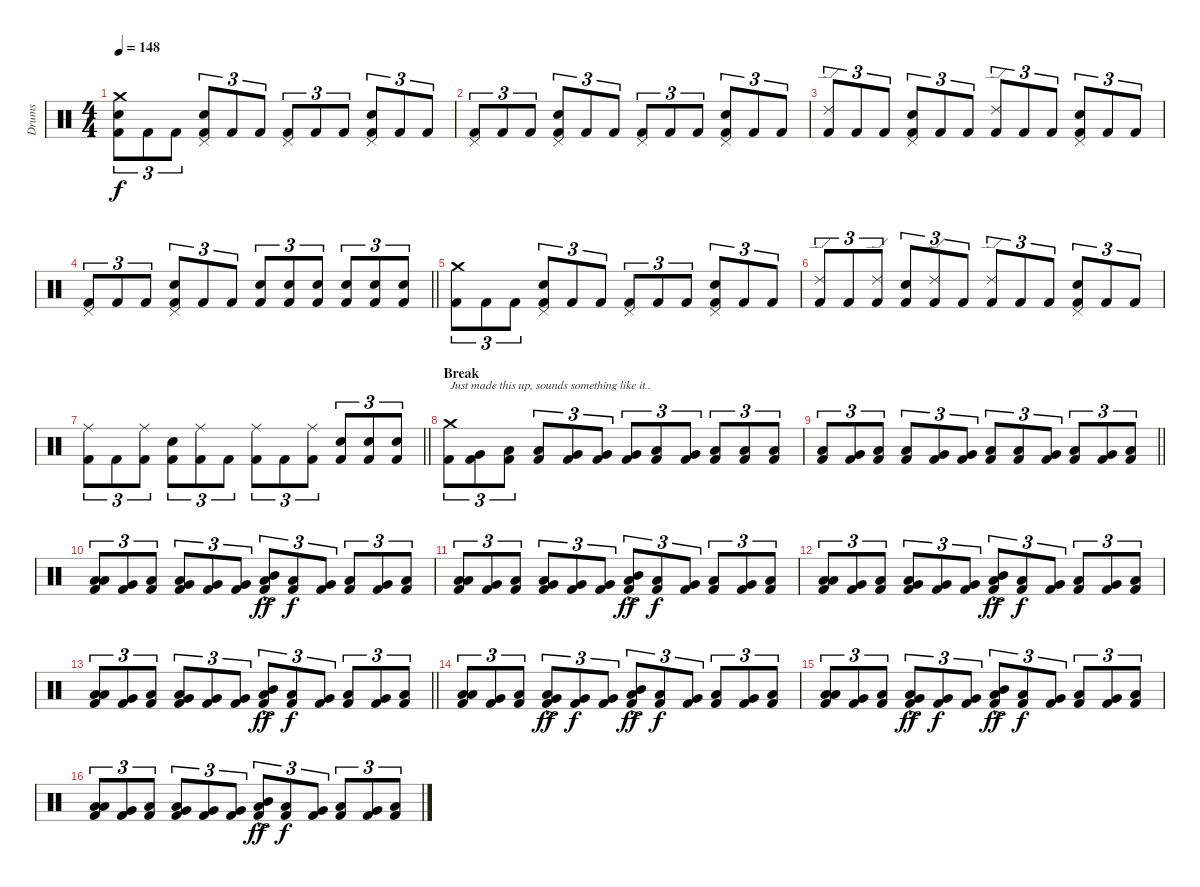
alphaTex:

\track ("Drums" "Drums") {instrument percussion}
\staff {score}
\articulation defaults
\ts (4 4)
\section ("" "")
\tempo 148
\clef neutral
\ks c
("Kick (hit) 2" "Snare (hit) 2" "Crash medium (hit)").8{tu (3 2) dy f} "Kick (hit) 2".8{tu (3 2)} "Kick (hit) 2".8{tu (3 2)} ("Kick (hit) 2" "Snare (hit) 2" "Pedal Hi-Hat (hit)").8{tu (3 2)} "Kick (hit) 2".8{tu (3 2)} "Kick (hit) 2".8{tu (3 2)} ("Kick (hit) 2" "Pedal Hi-Hat (hit)").8{tu (3 2)} "Kick (hit) 2".8{tu (3 2)} "Kick (hit) 2".8{tu (3 2)} ("Kick (hit) 2" "Snare (hit) 2" "Pedal Hi-Hat (hit)").8{tu (3 2)} "Kick (hit) 2".8{tu (3 2)} "Kick (hit) 2".8{tu (3 2)} |
("Kick (hit) 2" "Pedal Hi-Hat (hit)").8{tu (3 2)} "Kick (hit) 2".8{tu (3 2)} "Kick (hit) 2".8{tu (3 2)} ("Kick (hit) 2" "Snare (hit) 2" "Pedal Hi-Hat (hit)").8{tu (3 2)} "Kick (hit) 2".8{tu (3 2)} "Kick (hit) 2".8{tu (3 2)} ("Kick (hit) 2" "Pedal Hi-Hat (hit)").8{tu (3 2)} "Kick (hit) 2".8{tu (3 2)} "Kick (hit) 2".8{tu (3 2)} ("Kick (hit) 2" "Snare (hit) 2" "Pedal Hi-Hat (hit)").8{tu (3 2)} "Kick (hit) 2".8{tu (3 2)} "Kick (hit) 2".8{tu (3 2)} |
("Kick (hit) 2" "Ride (edge) 2").8{tu (3 2)} "Kick (hit) 2".8{tu (3 2)} "Kick (hit) 2".8{tu (3 2)} ("Kick (hit) 2" "Snare (hit) 2" "Pedal Hi-Hat (hit)").8{tu (3 2)} "Kick (hit) 2".8{tu (3 2)} "Kick (hit) 2".8{tu (3 2)} ("Kick (hit) 2" "Ride (edge) 2").8{tu (3 2)} "Kick (hit) 2".8{tu (3 2)} "Kick (hit) 2".8{tu (3 2)} ("Kick (hit) 2" "Snare (hit) 2" "Pedal Hi-Hat (hit)").8{tu (3 2)} "Kick (hit) 2".8{tu (3 2)} "Kick (hit) 2".8{tu (3 2)} |
\barLineRight lightlight
("Kick (hit) 2" "Pedal Hi-Hat (hit)").8{tu (3 2)} "Kick (hit) 2".8{tu (3 2)} "Kick (hit) 2".8{tu (3 2)} ("Kick (hit) 2" "Snare (hit) 2" "Pedal Hi-Hat (hit)").8{tu (3 2)} "Kick (hit) 2".8{tu (3 2)} "Kick (hit) 2".8{tu (3 2)} ("Kick (hit) 2" "Snare (hit) 2").8{tu (3 2)} ("Kick (hit) 2" "Snare (hit) 2").8{tu (3 2)} ("Kick (hit) 2" "Snare (hit) 2").8{tu (3 2)} ("Kick (hit) 2" "Snare (hit) 2").8{tu (3 2)} ("Kick (hit) 2" "Snare (hit) 2").8{tu (3 2)} ("Kick (hit) 2" "Snare (hit) 2").8{tu (3 2)} |
\section ("" "")
("Kick (hit) 2" "Crash medium (hit)").8{tu (3 2)} "Kick (hit) 2".8{tu (3 2)} "Kick (hit) 2".8{tu (3 2)} ("Kick (hit) 2" "Snare (hit) 2" "Pedal Hi-Hat (hit)").8{tu (3 2)} "Kick (hit) 2".8{tu (3 2)} "Kick (hit) 2".8{tu (3 2)} ("Kick (hit) 2" "Pedal Hi-Hat (hit)").8{tu (3 2)} "Kick (hit) 2".8{tu (3 2)} "Kick (hit) 2".8{tu (3 2)} ("Kick (hit) 2" "Snare (hit) 2" "Pedal Hi-Hat (hit)").8{tu (3 2)} "Kick (hit) 2".8{tu (3 2)} "Kick (hit) 2".8{tu (3 2)} |
("Kick (hit) 2" "Ride (edge) 2").8{tu (3 2)} "Kick (hit) 2".8{tu (3 2)} ("Kick (hit) 2" "Ride (edge) 2").8{tu (3 2)} ("Kick (hit) 2" "Snare (hit) 2").8{tu (3 2)} ("Kick (hit) 2" "Ride (edge) 2").8{tu (3 2)} "Kick (hit) 2".8{tu (3 2)} ("Kick (hit) 2" "Ride (edge) 2").8{tu (3 2)} "Kick (hit) 2".8{tu (3 2)} "Kick (hit) 2".8{tu (3 2)} ("Kick (hit) 2" "Snare (hit) 2" "Pedal Hi-Hat (hit)").8{tu (3 2)} "Kick (hit) 2".8{tu (3 2)} "Kick (hit) 2".8{tu (3 2)} |
\barLineRight lightlight
("Kick (hit) 2" "Ride (middle)").8{tu (3 2)} "Kick (hit) 2".8{tu (3 2)} ("Kick (hit) 2" "Ride (middle)").8{tu (3 2)} ("Kick (hit) 2" "Snare (hit) 2").8{tu (3 2)} ("Kick (hit) 2" "Ride (middle)").8{tu (3 2)} "Kick (hit) 2".8{tu (3 2)} ("Kick (hit) 2" "Ride (middle)").8{tu (3 2)} "Kick (hit) 2".8{tu (3 2)} ("Kick (hit) 2" "Ride (middle)").8{tu (3 2)} ("Kick (hit) 2" "Snare (hit) 2").8{tu (3 2)} ("Kick (hit) 2" "Snare (hit) 2").8{tu (3 2)} ("Kick (hit) 2" "Snare (hit) 2").8{tu (3 2)} |
\section ("" "Break")
("Kick (hit) 2" "Crash medium (hit)").8{tu (3 2) txt "Just made this up, sounds something like it.."} ("Kick (hit) 2" "Very Low Tom (hit)").8{tu (3 2)} ("Kick (hit) 2" "Low Floor Tom (hit)").8{tu (3 2)} ("Kick (hit) 2" "Low Floor Tom (hit)").8{tu (3 2)} ("Kick (hit) 2" "Very Low Tom (hit)").8{tu (3 2)} ("Kick (hit) 2" "Very Low Tom (hit)").8{tu (3 2)} ("Kick (hit) 2" "Very Low Tom (hit)").8{tu (3 2)} ("Kick (hit) 2" "Low Floor Tom (hit)").8{tu (3 2)} ("Kick (hit) 2" "Very Low Tom (hit)").8{tu (3 2)} ("Kick (hit) 2" "Low Floor Tom (hit)").8{tu (3 2)} ("Kick (hit) 2" "Low Tom (hit)").8{tu (3 2)} ("Kick (hit) 2" "Low Floor Tom (hit)").8{tu (3 2)} |
\barLineRight lightlight
("Kick (hit) 2" "Low Tom (hit)").8{tu (3 2)} ("Kick (hit) 2" "Very Low Tom (hit)").8{tu (3 2)} ("Kick (hit) 2" "Low Floor Tom (hit)").8{tu (3 2)} ("Kick (hit) 2" "Low Floor Tom (hit)").8{tu (3 2)} ("Kick (hit) 2" "Very Low Tom (hit)").8{tu (3 2)} ("Kick (hit) 2" "Very Low Tom (hit)").8{tu (3 2)} ("Kick (hit) 2" "Low Tom (hit)").8{tu (3 2)} ("Kick (hit) 2" "Low Floor Tom (hit)").8{tu (3 2)} ("Kick (hit) 2" "Very Low Tom (hit)").8{tu (3 2)} ("Kick (hit) 2" "Low Floor Tom (hit)").8{tu (3 2)} ("Kick (hit) 2" "Very Low Tom (hit)").8{tu (3 2)} ("Kick (hit) 2" "Low Floor Tom (hit)").8{tu (3 2)} |
\section ("" "")
("Kick (hit) 2" "Low Floor Tom (hit)" "Low Tom (hit)").8{tu (3 2)} ("Kick (hit) 2" "Very Low Tom (hit)").8{tu (3 2)} ("Kick (hit) 2" "Low Floor Tom (hit)").8{tu (3 2)} ("Kick (hit) 2" "Low Floor Tom (hit)" "Very Low Tom (hit)").8{tu (3 2)} ("Kick (hit) 2" "Very Low Tom (hit)").8{tu (3 2)} ("Kick (hit) 2" "Very Low Tom (hit)").8{tu (3 2)} ("Kick (hit) 2" "Mid Tom (hit)"{ac} "Low Tom (hit)"{ac}).8{tu (3 2) dy ff} ("Kick (hit) 2" "Low Floor Tom (hit)").8{tu (3 2) dy f} ("Kick (hit) 2" "Very Low Tom (hit)").8{tu (3 2)} ("Kick (hit) 2" "Low Floor Tom (hit)").8{tu (3 2)} ("Kick (hit) 2" "Very Low Tom (hit)").8{tu (3 2)} ("Kick (hit) 2" "Low Floor Tom (hit)").8{tu (3 2)} |
("Kick (hit) 2" "Low Floor Tom (hit)" "Low Tom (hit)").8{tu (3 2)} ("Kick (hit) 2" "Very Low Tom (hit)").8{tu (3 2)} ("Kick (hit) 2" "Low Floor Tom (hit)").8{tu (3 2)} ("Kick (hit) 2" "Low Floor Tom (hit)" "Very Low Tom (hit)").8{tu (3 2)} ("Kick (hit) 2" "Very Low Tom (hit)").8{tu (3 2)} ("Kick (hit) 2" "Very Low Tom (hit)").8{tu (3 2)} ("Kick (hit) 2" "Mid Tom (hit)"{ac} "Low Tom (hit)"{ac}).8{tu (3 2) dy ff} ("Kick (hit) 2" "Low Floor Tom (hit)").8{tu (3 2) dy f} ("Kick (hit) 2" "Very Low Tom (hit)").8{tu (3 2)} ("Kick (hit) 2" "Low Floor Tom (hit)").8{tu (3 2)} ("Kick (hit) 2" "Very Low Tom (hit)").8{tu (3 2)} ("Kick (hit) 2" "Low Floor Tom (hit)").8{tu (3 2)} |
("Kick (hit) 2" "Low Floor Tom (hit)" "Low Tom (hit)").8{tu (3 2)} ("Kick (hit) 2" "Very Low Tom (hit)").8{tu (3 2)} ("Kick (hit) 2" "Low Floor Tom (hit)").8{tu (3 2)} ("Kick (hit) 2" "Low Floor Tom (hit)" "Very Low Tom (hit)").8{tu (3 2)} ("Kick (hit) 2" "Very Low Tom (hit)").8{tu (3 2)} ("Kick (hit) 2" "Very Low Tom (hit)").8{tu (3 2)} ("Kick (hit) 2" "Mid Tom (hit)"{ac} "Low Tom (hit)"{ac}).8{tu (3 2) dy ff} ("Kick (hit) 2" "Low Floor Tom (hit)").8{tu (3 2) dy f} ("Kick (hit) 2" "Very Low Tom (hit)").8{tu (3 2)} ("Kick (hit) 2" "Low Floor Tom (hit)").8{tu (3 2)} ("Kick (hit) 2" "Very Low Tom (hit)").8{tu (3 2)} ("Kick (hit) 2" "Low Floor Tom (hit)").8{tu (3 2)} |
\barLineRight lightlight
("Kick (hit) 2" "Low Floor Tom (hit)" "Low Tom (hit)").8{tu (3 2)} ("Kick (hit) 2" "Very Low Tom (hit)").8{tu (3 2)} ("Kick (hit) 2" "Low Floor Tom (hit)").8{tu (3 2)} ("Kick (hit) 2" "Low Floor Tom (hit)" "Very Low Tom (hit)").8{tu (3 2)} ("Kick (hit) 2" "Very Low Tom (hit)").8{tu (3 2)} ("Kick (hit) 2" "Very Low Tom (hit)").8{tu (3 2)} ("Kick (hit) 2" "Mid Tom (hit)"{ac} "Low Tom (hit)"{ac}).8{tu (3 2) dy ff} ("Kick (hit) 2" "Low Floor Tom (hit)").8{tu (3 2) dy f} ("Kick (hit) 2" "Very Low Tom (hit)").8{tu (3 2)} ("Kick (hit) 2" "Low Floor Tom (hit)").8{tu (3 2)} ("Kick (hit) 2" "Very Low Tom (hit)").8{tu (3 2)} ("Kick (hit) 2" "Low Floor Tom (hit)").8{tu (3 2)} |
\section ("" "")
("Kick (hit) 2" "Low Floor Tom (hit)" "Low Tom (hit)").8{tu (3 2)} ("Kick (hit) 2" "Very Low Tom (hit)").8{tu (3 2)} ("Kick (hit) 2" "Low Floor Tom (hit)").8{tu (3 2)} ("Kick (hit) 2" "Low Floor Tom (hit)"{ac} "Very Low Tom (hit)"{ac}).8{tu (3 2) dy ff} ("Kick (hit) 2" "Very Low Tom (hit)").8{tu (3 2) dy f} ("Kick (hit) 2" "Very Low Tom (hit)").8{tu (3 2)} ("Kick (hit) 2" "Mid Tom (hit)"{ac} "Low Tom (hit)"{ac}).8{tu (3 2) dy ff} ("Kick (hit) 2" "Low Floor Tom (hit)").8{tu (3 2) dy f} ("Kick (hit) 2" "Very Low Tom (hit)").8{tu (3 2)} ("Kick (hit) 2" "Low Floor Tom (hit)").8{tu (3 2)} ("Kick (hit) 2" "Very Low Tom (hit)").8{tu (3 2)} ("Kick (hit) 2" "Low Floor Tom (hit)").8{tu (3 2)} |
("Kick (hit) 2" "Low Floor Tom (hit)" "Low Tom (hit)").8{tu (3 2)} ("Kick (hit) 2" "Very Low Tom (hit)").8{tu (3 2)} ("Kick (hit) 2" "Low Floor Tom (hit)").8{tu (3 2)} ("Kick (hit) 2" "Low Floor Tom (hit)"{ac} "Very Low Tom (hit)"{ac}).8{tu (3 2) dy ff} ("Kick (hit) 2" "Very Low Tom (hit)").8{tu (3 2) dy f} ("Kick (hit) 2" "Very Low Tom (hit)").8{tu (3 2)} ("Kick (hit) 2" "Mid Tom (hit)"{ac} "Low Tom (hit)"{ac}).8{tu (3 2) dy ff} ("Kick (hit) 2" "Low Floor Tom (hit)").8{tu (3 2) dy f} ("Kick (hit) 2" "Very Low Tom (hit)").8{tu (3 2)} ("Kick (hit) 2" "Low Floor Tom (hit)").8{tu (3 2)} ("Kick (hit) 2" "Very Low Tom (hit)").8{tu (3 2)} ("Kick (hit) 2" "Low Floor Tom (hit)").8{tu (3 2)} |
("Kick (hit) 2" "Low Floor Tom (hit)" "Low Tom (hit)").8{tu (3 2)} ("Kick (hit) 2" "Very Low Tom (hit)").8{tu (3 2)} ("Kick (hit) 2" "Low Floor Tom (hit)").8{tu (3 2)} ("Kick (hit) 2" "Low Floor Tom (hit)" "Very Low Tom (hit)").8{tu (3 2)} ("Kick (hit) 2" "Very Low Tom (hit)").8{tu (3 2)} ("Kick (hit) 2" "Very Low Tom (hit)").8{tu (3 2)} ("Kick (hit) 2" "Mid Tom (hit)"{ac} "Low Tom (hit)"{ac}).8{tu (3 2) dy ff} ("Kick (hit) 2" "Low Floor Tom (hit)").8{tu (3 2) dy f} ("Kick (hit) 2" "Very Low Tom (hit)").8{tu (3 2)} ("Kick (hit) 2" "Low Floor Tom (hit)").8{tu (3 2)} ("Kick (hit) 2" "Very Low Tom (hit)").8{tu (3 2)} ("Kick (hit) 2" "Low Floor Tom (hit)").8{tu (3 2)}
